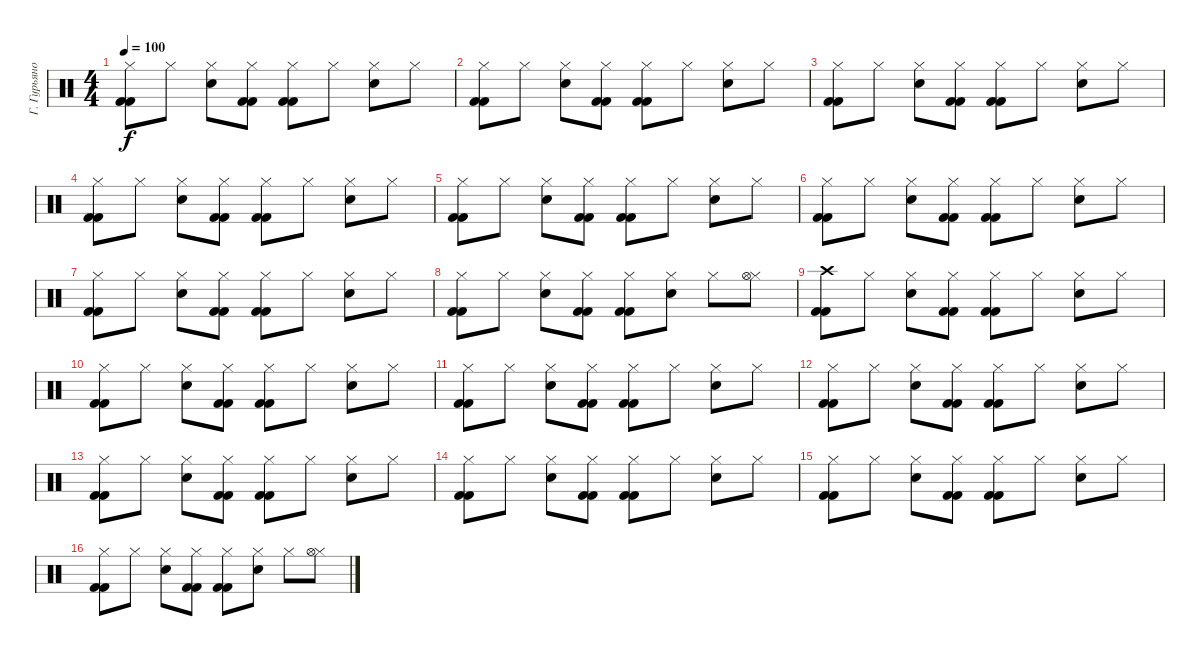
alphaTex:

\track ("Г. Гурьянов" "Г. Гурьяно") {instrument percussion}
\staff {score}
\articulation defaults
\ts (4 4)
\tempo 100
\clef neutral
\ks c
("Hi-Hat (closed)" "Kick (hit) 2" "Kick (hit) 2").8{dy f} "Hi-Hat (closed)".8 ("Hi-Hat (closed)" "Snare (hit) 2").8 ("Hi-Hat (closed)" "Kick (hit) 2" "Kick (hit) 2").8 ("Hi-Hat (closed)" "Kick (hit) 2" "Kick (hit) 2").8 "Hi-Hat (closed)".8 ("Hi-Hat (closed)" "Snare (hit) 2").8 "Hi-Hat (closed)".8 |
("Hi-Hat (closed)" "Kick (hit) 2" "Kick (hit) 2").8 "Hi-Hat (closed)".8 ("Hi-Hat (closed)" "Snare (hit) 2").8 ("Hi-Hat (closed)" "Kick (hit) 2" "Kick (hit) 2").8 ("Hi-Hat (closed)" "Kick (hit) 2" "Kick (hit) 2").8 "Hi-Hat (closed)".8 ("Hi-Hat (closed)" "Snare (hit) 2").8 "Hi-Hat (closed)".8 |
("Hi-Hat (closed)" "Kick (hit) 2" "Kick (hit) 2").8 "Hi-Hat (closed)".8 ("Hi-Hat (closed)" "Snare (hit) 2").8 ("Hi-Hat (closed)" "Kick (hit) 2" "Kick (hit) 2").8 ("Hi-Hat (closed)" "Kick (hit) 2" "Kick (hit) 2").8 "Hi-Hat (closed)".8 ("Hi-Hat (closed)" "Snare (hit) 2").8 "Hi-Hat (closed)".8 |
("Hi-Hat (closed)" "Kick (hit) 2" "Kick (hit) 2").8 "Hi-Hat (closed)".8 ("Hi-Hat (closed)" "Snare (hit) 2").8 ("Hi-Hat (closed)" "Kick (hit) 2" "Kick (hit) 2").8 ("Hi-Hat (closed)" "Kick (hit) 2" "Kick (hit) 2").8 "Hi-Hat (closed)".8 ("Hi-Hat (closed)" "Snare (hit) 2").8 "Hi-Hat (closed)".8 |
("Hi-Hat (closed)" "Kick (hit) 2" "Kick (hit) 2").8 "Hi-Hat (closed)".8 ("Hi-Hat (closed)" "Snare (hit) 2").8 ("Hi-Hat (closed)" "Kick (hit) 2" "Kick (hit) 2").8 ("Hi-Hat (closed)" "Kick (hit) 2" "Kick (hit) 2").8 "Hi-Hat (closed)".8 ("Hi-Hat (closed)" "Snare (hit) 2").8 "Hi-Hat (closed)".8 |
("Hi-Hat (closed)" "Kick (hit) 2" "Kick (hit) 2").8 "Hi-Hat (closed)".8 ("Hi-Hat (closed)" "Snare (hit) 2").8 ("Hi-Hat (closed)" "Kick (hit) 2" "Kick (hit) 2").8 ("Hi-Hat (closed)" "Kick (hit) 2" "Kick (hit) 2").8 "Hi-Hat (closed)".8 ("Hi-Hat (closed)" "Snare (hit) 2").8 "Hi-Hat (closed)".8 |
("Hi-Hat (closed)" "Kick (hit) 2" "Kick (hit) 2").8 "Hi-Hat (closed)".8 ("Hi-Hat (closed)" "Snare (hit) 2").8 ("Hi-Hat (closed)" "Kick (hit) 2" "Kick (hit) 2").8 ("Hi-Hat (closed)" "Kick (hit) 2" "Kick (hit) 2").8 "Hi-Hat (closed)".8 ("Hi-Hat (closed)" "Snare (hit) 2").8 "Hi-Hat (closed)".8 |
("Hi-Hat (closed)" "Kick (hit) 2" "Kick (hit) 2").8 "Hi-Hat (closed)".8 ("Hi-Hat (closed)" "Snare (hit) 2").8 ("Hi-Hat (closed)" "Kick (hit) 2" "Kick (hit) 2").8 ("Hi-Hat (closed)" "Kick (hit) 2" "Kick (hit) 2").8 ("Hi-Hat (closed)" "Snare (hit) 2").8 "Hi-Hat (closed)".8 ("Hi-Hat (closed)" "Hi-Hat (open)").8 |
("Crash high (hit)" "Kick (hit) 2" "Kick (hit) 2").8 "Hi-Hat (closed)".8 ("Hi-Hat (closed)" "Snare (hit) 2").8 ("Hi-Hat (closed)" "Kick (hit) 2" "Kick (hit) 2").8 ("Hi-Hat (closed)" "Kick (hit) 2" "Kick (hit) 2").8 "Hi-Hat (closed)".8 ("Hi-Hat (closed)" "Snare (hit) 2").8 "Hi-Hat (closed)".8 |
("Hi-Hat (closed)" "Kick (hit) 2" "Kick (hit) 2").8 "Hi-Hat (closed)".8 ("Hi-Hat (closed)" "Snare (hit) 2").8 ("Hi-Hat (closed)" "Kick (hit) 2" "Kick (hit) 2").8 ("Hi-Hat (closed)" "Kick (hit) 2" "Kick (hit) 2").8 "Hi-Hat (closed)".8 ("Hi-Hat (closed)" "Snare (hit) 2").8 "Hi-Hat (closed)".8 |
("Hi-Hat (closed)" "Kick (hit) 2" "Kick (hit) 2").8 "Hi-Hat (closed)".8 ("Hi-Hat (closed)" "Snare (hit) 2").8 ("Hi-Hat (closed)" "Kick (hit) 2" "Kick (hit) 2").8 ("Hi-Hat (closed)" "Kick (hit) 2" "Kick (hit) 2").8 "Hi-Hat (closed)".8 ("Hi-Hat (closed)" "Snare (hit) 2").8 "Hi-Hat (closed)".8 |
("Hi-Hat (closed)" "Kick (hit) 2" "Kick (hit) 2").8 "Hi-Hat (closed)".8 ("Hi-Hat (closed)" "Snare (hit) 2").8 ("Hi-Hat (closed)" "Kick (hit) 2" "Kick (hit) 2").8 ("Hi-Hat (closed)" "Kick (hit) 2" "Kick (hit) 2").8 "Hi-Hat (closed)".8 ("Hi-Hat (closed)" "Snare (hit) 2").8 "Hi-Hat (closed)".8 |
("Hi-Hat (closed)" "Kick (hit) 2" "Kick (hit) 2").8 "Hi-Hat (closed)".8 ("Hi-Hat (closed)" "Snare (hit) 2").8 ("Hi-Hat (closed)" "Kick (hit) 2" "Kick (hit) 2").8 ("Hi-Hat (closed)" "Kick (hit) 2" "Kick (hit) 2").8 "Hi-Hat (closed)".8 ("Hi-Hat (closed)" "Snare (hit) 2").8 "Hi-Hat (closed)".8 |
("Hi-Hat (closed)" "Kick (hit) 2" "Kick (hit) 2").8 "Hi-Hat (closed)".8 ("Hi-Hat (closed)" "Snare (hit) 2").8 ("Hi-Hat (closed)" "Kick (hit) 2" "Kick (hit) 2").8 ("Hi-Hat (closed)" "Kick (hit) 2" "Kick (hit) 2").8 "Hi-Hat (closed)".8 ("Hi-Hat (closed)" "Snare (hit) 2").8 "Hi-Hat (closed)".8 |
("Hi-Hat (closed)" "Kick (hit) 2" "Kick (hit) 2").8 "Hi-Hat (closed)".8 ("Hi-Hat (closed)" "Snare (hit) 2").8 ("Hi-Hat (closed)" "Kick (hit) 2" "Kick (hit) 2").8 ("Hi-Hat (closed)" "Kick (hit) 2" "Kick (hit) 2").8 "Hi-Hat (closed)".8 ("Hi-Hat (closed)" "Snare (hit) 2").8 "Hi-Hat (closed)".8 |
("Hi-Hat (closed)" "Kick (hit) 2" "Kick (hit) 2").8 "Hi-Hat (closed)".8 ("Hi-Hat (closed)" "Snare (hit) 2").8 ("Hi-Hat (closed)" "Kick (hit) 2" "Kick (hit) 2").8 ("Hi-Hat (closed)" "Kick (hit) 2" "Kick (hit) 2").8 ("Hi-Hat (closed)" "Snare (hit) 2").8 "Hi-Hat (closed)".8 ("Hi-Hat (closed)" "Hi-Hat (open)").8
